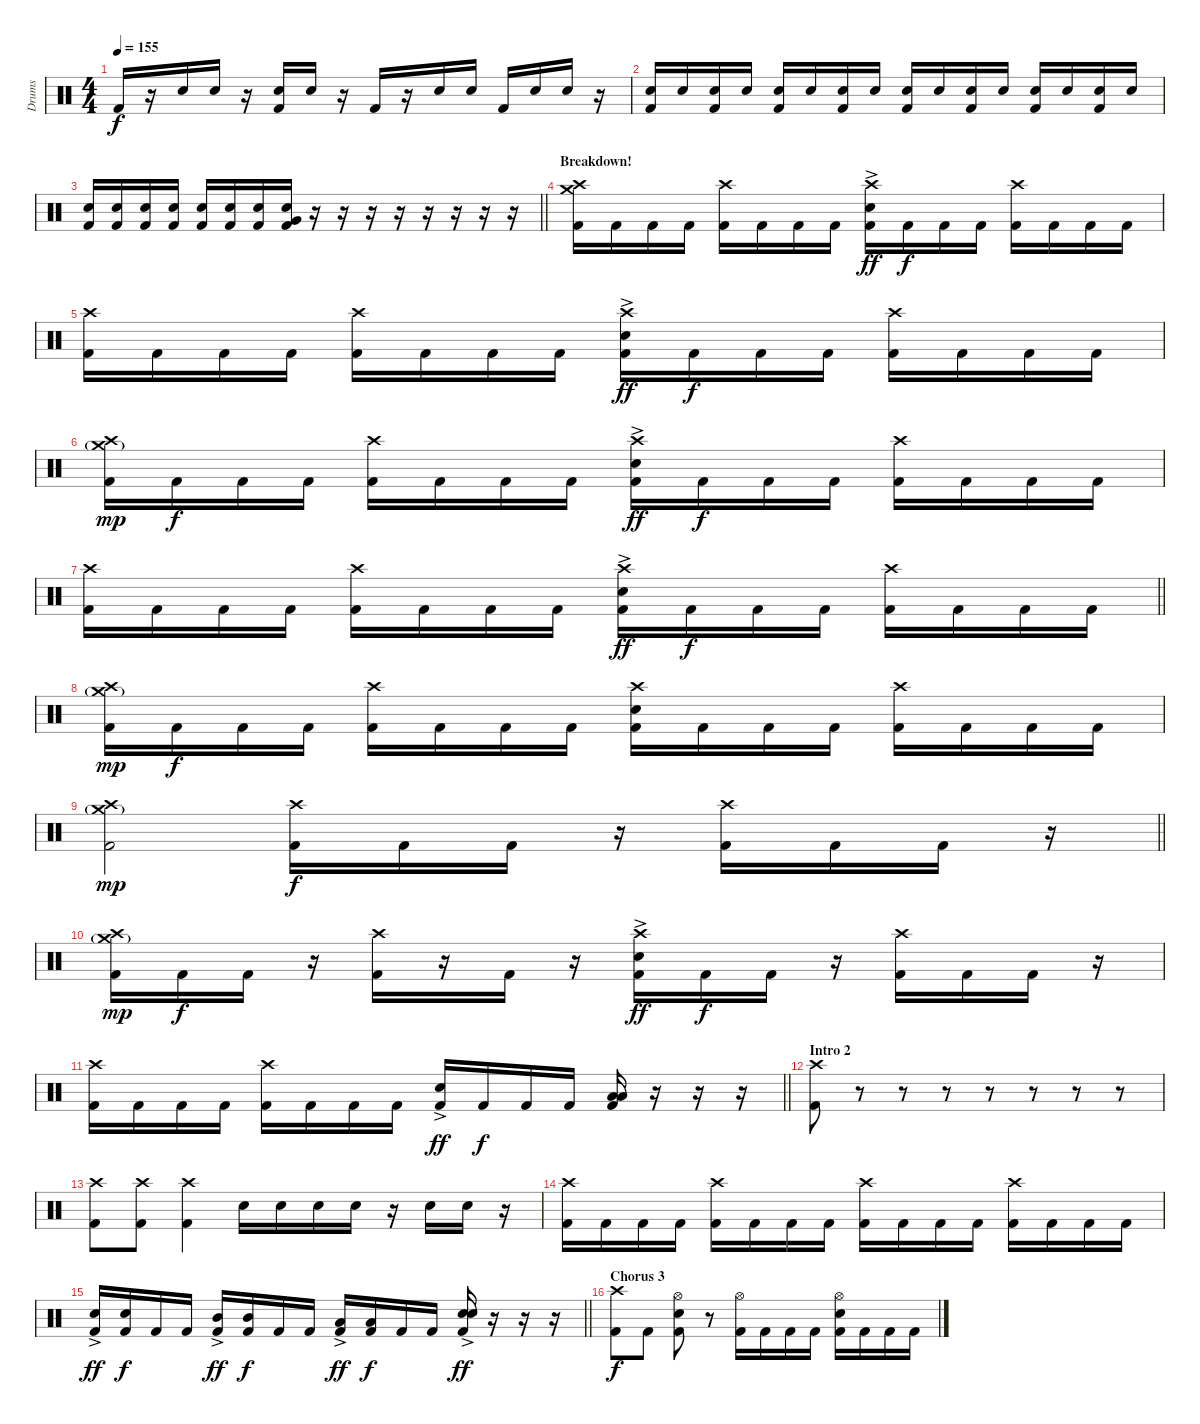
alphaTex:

\track ("Drums" "Drums") {instrument percussion}
\staff {score}
\articulation defaults
\ts (4 4)
\tempo 155
\clef neutral
\ks c "Kick (hit) 2".16{dy f}
r.16 "Snare (hit) 2".16 "Snare (hit) 2".16 r.16 ("Snare (hit) 2" "Kick (hit) 2").16 "Snare (hit) 2".16 r.16 "Kick (hit) 2".16 r.16 "Snare (hit) 2".16 "Snare (hit) 2".16 "Kick (hit) 2".16 "Snare (hit) 2".16 "Snare (hit) 2".16 r.16 |
("Snare (hit) 2" "Kick (hit) 2").16 "Snare (hit) 2".16 ("Snare (hit) 2" "Kick (hit) 2").16 "Snare (hit) 2".16 ("Snare (hit) 2" "Kick (hit) 2").16 "Snare (hit) 2".16 ("Snare (hit) 2" "Kick (hit) 2").16 "Snare (hit) 2".16 ("Snare (hit) 2" "Kick (hit) 2").16 "Snare (hit) 2".16 ("Snare (hit) 2" "Kick (hit) 2").16 "Snare (hit) 2".16 ("Snare (hit) 2" "Kick (hit) 2").16 "Snare (hit) 2".16 ("Snare (hit) 2" "Kick (hit) 2").16 "Snare (hit) 2".16 |
\barLineRight lightlight
("Snare (hit) 2" "Kick (hit) 2").16 ("Snare (hit) 2" "Kick (hit) 2").16 ("Snare (hit) 2" "Kick (hit) 2").16 ("Snare (hit) 2" "Kick (hit) 2").16 ("Snare (hit) 2" "Kick (hit) 2").16 ("Snare (hit) 2" "Kick (hit) 2").16 ("Snare (hit) 2" "Kick (hit) 2").16 ("Very Low Tom (hit)" "Snare (hit) 2" "Kick (hit) 2").16 r.16 r.16 r.16 r.16 r.16 r.16 r.16 r.16 |
\section ("" "Breakdown!")
("Crash high (hit)" "Crash medium (hit)" "Kick (hit) 2").16 "Kick (hit) 2".16 "Kick (hit) 2".16 "Kick (hit) 2".16 ("Crash high (hit)" "Kick (hit) 2").16 "Kick (hit) 2".16 "Kick (hit) 2".16 "Kick (hit) 2".16 ("Crash high (hit)" "Snare (hit) 2"{ac} "Kick (hit) 2").16{dy ff} "Kick (hit) 2".16{dy f} "Kick (hit) 2".16 "Kick (hit) 2".16 ("Crash high (hit)" "Kick (hit) 2").16 "Kick (hit) 2".16 "Kick (hit) 2".16 "Kick (hit) 2".16 |
("Crash high (hit)" "Kick (hit) 2").16 "Kick (hit) 2".16 "Kick (hit) 2".16 "Kick (hit) 2".16 ("Crash high (hit)" "Kick (hit) 2").16 "Kick (hit) 2".16 "Kick (hit) 2".16 "Kick (hit) 2".16 ("Crash high (hit)" "Snare (hit) 2"{ac} "Kick (hit) 2").16{dy ff} "Kick (hit) 2".16{dy f} "Kick (hit) 2".16 "Kick (hit) 2".16 ("Crash high (hit)" "Kick (hit) 2").16 "Kick (hit) 2".16 "Kick (hit) 2".16 "Kick (hit) 2".16 |
("Crash high (hit)" "Crash medium (hit)"{g} "Kick (hit) 2").16{dy mp} "Kick (hit) 2".16{dy f} "Kick (hit) 2".16 "Kick (hit) 2".16 ("Crash high (hit)" "Kick (hit) 2").16 "Kick (hit) 2".16 "Kick (hit) 2".16 "Kick (hit) 2".16 ("Crash high (hit)" "Snare (hit) 2"{ac} "Kick (hit) 2").16{dy ff} "Kick (hit) 2".16{dy f} "Kick (hit) 2".16 "Kick (hit) 2".16 ("Crash high (hit)" "Kick (hit) 2").16 "Kick (hit) 2".16 "Kick (hit) 2".16 "Kick (hit) 2".16 |
\barLineRight lightlight
("Crash high (hit)" "Kick (hit) 2").16 "Kick (hit) 2".16 "Kick (hit) 2".16 "Kick (hit) 2".16 ("Crash high (hit)" "Kick (hit) 2").16 "Kick (hit) 2".16 "Kick (hit) 2".16 "Kick (hit) 2".16 ("Crash high (hit)" "Snare (hit) 2"{ac} "Kick (hit) 2").16{dy ff} "Kick (hit) 2".16{dy f} "Kick (hit) 2".16 "Kick (hit) 2".16 ("Crash high (hit)" "Kick (hit) 2").16 "Kick (hit) 2".16 "Kick (hit) 2".16 "Kick (hit) 2".16 |
("Crash high (hit)" "Crash medium (hit)"{g} "Kick (hit) 2").16{dy mp} "Kick (hit) 2".16{dy f} "Kick (hit) 2".16 "Kick (hit) 2".16 ("Crash high (hit)" "Kick (hit) 2").16 "Kick (hit) 2".16 "Kick (hit) 2".16 "Kick (hit) 2".16 ("Crash high (hit)" "Snare (hit) 2" "Kick (hit) 2").16 "Kick (hit) 2".16 "Kick (hit) 2".16 "Kick (hit) 2".16 ("Crash high (hit)" "Kick (hit) 2").16 "Kick (hit) 2".16 "Kick (hit) 2".16 "Kick (hit) 2".16 |
\barLineRight lightlight
("Crash high (hit)" "Crash medium (hit)"{g} "Kick (hit) 2").2{dy mp} ("Crash high (hit)" "Kick (hit) 2").16{dy f} "Kick (hit) 2".16 "Kick (hit) 2".16 r.16 ("Crash high (hit)" "Kick (hit) 2").16 "Kick (hit) 2".16 "Kick (hit) 2".16 r.16 |
("Crash high (hit)" "Crash medium (hit)"{g} "Kick (hit) 2").16{dy mp} "Kick (hit) 2".16{dy f} "Kick (hit) 2".16 r.16 ("Crash high (hit)" "Kick (hit) 2").16 r.16 "Kick (hit) 2".16 r.16 ("Crash high (hit)" "Snare (hit) 2"{ac} "Kick (hit) 2").16{dy ff} "Kick (hit) 2".16{dy f} "Kick (hit) 2".16 r.16 ("Crash high (hit)" "Kick (hit) 2").16 "Kick (hit) 2".16 "Kick (hit) 2".16 r.16 |
\barLineRight lightlight
("Crash high (hit)" "Kick (hit) 2").16 "Kick (hit) 2".16 "Kick (hit) 2".16 "Kick (hit) 2".16 ("Crash high (hit)" "Kick (hit) 2").16 "Kick (hit) 2".16 "Kick (hit) 2".16 "Kick (hit) 2".16 ("Snare (hit) 2"{ac} "Kick (hit) 2").16{dy ff} "Kick (hit) 2".16{dy f} "Kick (hit) 2".16 "Kick (hit) 2".16 ("Low Tom (hit)" "Low Tom (hit)" "Kick (hit) 2").16 r.16 r.16 r.16 |
\section ("" "Intro 2")
("Crash high (hit)" "Kick (hit) 2").8 r.8 r.8 r.8 r.8 r.8 r.8 r.8 |
("Crash high (hit)" "Kick (hit) 2").8 ("Crash high (hit)" "Kick (hit) 2").8 ("Crash high (hit)" "Kick (hit) 2").4 "Snare (hit) 2".16 "Snare (hit) 2".16 "Snare (hit) 2".16 "Snare (hit) 2".16 r.16 "Snare (hit) 2".16 "Snare (hit) 2".16 r.16 |
("Crash high (hit)" "Kick (hit) 2").16 "Kick (hit) 2".16 "Kick (hit) 2".16 "Kick (hit) 2".16 ("Crash high (hit)" "Kick (hit) 2").16 "Kick (hit) 2".16 "Kick (hit) 2".16 "Kick (hit) 2".16 ("Crash high (hit)" "Kick (hit) 2").16 "Kick (hit) 2".16 "Kick (hit) 2".16 "Kick (hit) 2".16 ("Crash high (hit)" "Kick (hit) 2").16 "Kick (hit) 2".16 "Kick (hit) 2".16 "Kick (hit) 2".16 |
\barLineRight lightlight
("Snare (hit) 2"{ac} "Kick (hit) 2").16{dy ff} ("Snare (hit) 2" "Kick (hit) 2").16{dy f} "Kick (hit) 2".16 "Kick (hit) 2".16 ("Mid Tom (hit)"{ac} "Kick (hit) 2").16{dy ff} ("Mid Tom (hit)" "Kick (hit) 2").16{dy f} "Kick (hit) 2".16 "Kick (hit) 2".16 ("Low Tom (hit)"{ac} "Kick (hit) 2").16{dy ff} ("Low Tom (hit)" "Kick (hit) 2").16{dy f} "Kick (hit) 2".16 "Kick (hit) 2".16 ("Snare (hit) 2"{ac} "Snare (hit) 2" "Kick (hit) 2").16{dy ff} r.16 r.16 r.16 |
\section ("" "Chorus 3")
("Crash high (hit)" "Kick (hit) 2").8{dy f} "Kick (hit) 2".8 ("Hi-Hat (open)" "Snare (hit) 2" "Kick (hit) 2").8 r.8 ("Hi-Hat (open)" "Kick (hit) 2").16 "Kick (hit) 2".16 "Kick (hit) 2".16 "Kick (hit) 2".16 ("Hi-Hat (open)" "Snare (hit) 2" "Kick (hit) 2").16 "Kick (hit) 2".16 "Kick (hit) 2".16 "Kick (hit) 2".16
